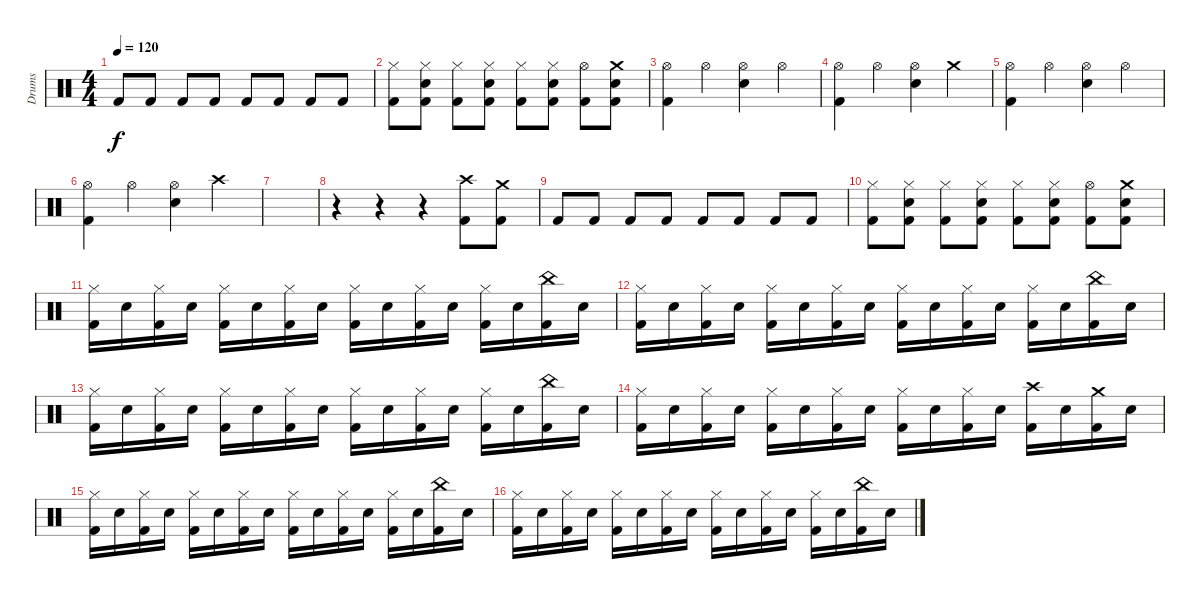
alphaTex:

\track ("Drums" "Drums") {instrument percussion}
\staff {score}
\articulation defaults
\ts (4 4)
\tempo 120
\clef neutral
\ks c "Kick (hit) 2".8{dy f} "Kick (hit) 2".8 "Kick (hit) 2".8 "Kick (hit) 2".8 "Kick (hit) 2".8 "Kick (hit) 2".8 "Kick (hit) 2".8 "Kick (hit) 2".8
|
("Hi-Hat (closed)" "Kick (hit) 2").8 ("Hi-Hat (closed)" "Kick (hit) 2" "Snare (hit) 2").8 ("Hi-Hat (closed)" "Kick (hit) 2").8 ("Hi-Hat (closed)" "Kick (hit) 2" "Snare (hit) 2").8 ("Hi-Hat (closed)" "Kick (hit) 2").8 ("Hi-Hat (closed)" "Kick (hit) 2" "Snare (hit) 2").8 ("Hi-Hat (open)" "Kick (hit) 2").8 ("Crash medium (hit)" "Kick (hit) 2" "Snare (hit) 2").8 |
("Hi-Hat (open)" "Kick (hit) 2").4 "Hi-Hat (open)".4 ("Hi-Hat (open)" "Snare (hit) 2").4 "Hi-Hat (open)".4 |
("Hi-Hat (open)" "Kick (hit) 2").4 "Hi-Hat (open)".4 ("Hi-Hat (open)" "Snare (hit) 2").4 "Crash medium (hit)".4 |
("Hi-Hat (open)" "Kick (hit) 2").4 "Hi-Hat (open)".4 ("Hi-Hat (open)" "Snare (hit) 2").4 "Hi-Hat (open)".4 |
("Hi-Hat (open)" "Kick (hit) 2").4 "Hi-Hat (open)".4 ("Hi-Hat (open)" "Snare (hit) 2").4 "Crash high (hit)".4 |
|
r.4 r.4 r.4 ("Kick (hit) 2" "Crash high (hit)").8 ("Kick (hit) 2" "Crash medium (hit)").8 |
"Kick (hit) 2".8 "Kick (hit) 2".8 "Kick (hit) 2".8 "Kick (hit) 2".8 "Kick (hit) 2".8 "Kick (hit) 2".8 "Kick (hit) 2".8 "Kick (hit) 2".8 |
("Hi-Hat (closed)" "Kick (hit) 2").8 ("Hi-Hat (closed)" "Kick (hit) 2" "Snare (hit) 2").8 ("Hi-Hat (closed)" "Kick (hit) 2").8 ("Hi-Hat (closed)" "Kick (hit) 2" "Snare (hit) 2").8 ("Hi-Hat (closed)" "Kick (hit) 2").8 ("Hi-Hat (closed)" "Kick (hit) 2" "Snare (hit) 2").8 ("Hi-Hat (open)" "Kick (hit) 2").8 ("Crash medium (hit)" "Kick (hit) 2" "Snare (hit) 2").8 |
("Hi-Hat (closed)" "Kick (hit) 2").16 "Snare (hit) 2".16 ("Hi-Hat (closed)" "Kick (hit) 2").16 "Snare (hit) 2".16 ("Hi-Hat (closed)" "Kick (hit) 2").16 "Snare (hit) 2".16 ("Hi-Hat (closed)" "Kick (hit) 2").16 "Snare (hit) 2".16 ("Hi-Hat (closed)" "Kick (hit) 2").16 "Snare (hit) 2".16 ("Hi-Hat (closed)" "Kick (hit) 2").16 "Snare (hit) 2".16 ("Hi-Hat (closed)" "Kick (hit) 2").16 "Snare (hit) 2".16 ("China (hit)" "Kick (hit) 2").16 "Snare (hit) 2".16 |
("Hi-Hat (closed)" "Kick (hit) 2").16 "Snare (hit) 2".16 ("Hi-Hat (closed)" "Kick (hit) 2").16 "Snare (hit) 2".16 ("Hi-Hat (closed)" "Kick (hit) 2").16 "Snare (hit) 2".16 ("Hi-Hat (closed)" "Kick (hit) 2").16 "Snare (hit) 2".16 ("Hi-Hat (closed)" "Kick (hit) 2").16 "Snare (hit) 2".16 ("Hi-Hat (closed)" "Kick (hit) 2").16 "Snare (hit) 2".16 ("Hi-Hat (closed)" "Kick (hit) 2").16 "Snare (hit) 2".16 ("China (hit)" "Kick (hit) 2").16 "Snare (hit) 2".16 |
("Hi-Hat (closed)" "Kick (hit) 2").16 "Snare (hit) 2".16 ("Hi-Hat (closed)" "Kick (hit) 2").16 "Snare (hit) 2".16 ("Hi-Hat (closed)" "Kick (hit) 2").16 "Snare (hit) 2".16 ("Hi-Hat (closed)" "Kick (hit) 2").16 "Snare (hit) 2".16 ("Hi-Hat (closed)" "Kick (hit) 2").16 "Snare (hit) 2".16 ("Hi-Hat (closed)" "Kick (hit) 2").16 "Snare (hit) 2".16 ("Hi-Hat (closed)" "Kick (hit) 2").16 "Snare (hit) 2".16 ("China (hit)" "Kick (hit) 2").16 "Snare (hit) 2".16 |
("Hi-Hat (closed)" "Kick (hit) 2").16 "Snare (hit) 2".16 ("Hi-Hat (closed)" "Kick (hit) 2").16 "Snare (hit) 2".16 ("Hi-Hat (closed)" "Kick (hit) 2").16 "Snare (hit) 2".16 ("Hi-Hat (closed)" "Kick (hit) 2").16 "Snare (hit) 2".16 ("Hi-Hat (closed)" "Kick (hit) 2").16 "Snare (hit) 2".16 ("Hi-Hat (closed)" "Kick (hit) 2").16 "Snare (hit) 2".16 ("Crash high (hit)" "Kick (hit) 2").16 "Snare (hit) 2".16 ("Crash medium (hit)" "Kick (hit) 2").16 "Snare (hit) 2".16 |
("Hi-Hat (closed)" "Kick (hit) 2").16 "Snare (hit) 2".16 ("Hi-Hat (closed)" "Kick (hit) 2").16 "Snare (hit) 2".16 ("Hi-Hat (closed)" "Kick (hit) 2").16 "Snare (hit) 2".16 ("Hi-Hat (closed)" "Kick (hit) 2").16 "Snare (hit) 2".16 ("Hi-Hat (closed)" "Kick (hit) 2").16 "Snare (hit) 2".16 ("Hi-Hat (closed)" "Kick (hit) 2").16 "Snare (hit) 2".16 ("Hi-Hat (closed)" "Kick (hit) 2").16 "Snare (hit) 2".16 ("China (hit)" "Kick (hit) 2").16 "Snare (hit) 2".16 |
("Hi-Hat (closed)" "Kick (hit) 2").16 "Snare (hit) 2".16 ("Hi-Hat (closed)" "Kick (hit) 2").16 "Snare (hit) 2".16 ("Hi-Hat (closed)" "Kick (hit) 2").16 "Snare (hit) 2".16 ("Hi-Hat (closed)" "Kick (hit) 2").16 "Snare (hit) 2".16 ("Hi-Hat (closed)" "Kick (hit) 2").16 "Snare (hit) 2".16 ("Hi-Hat (closed)" "Kick (hit) 2").16 "Snare (hit) 2".16 ("Hi-Hat (closed)" "Kick (hit) 2").16 "Snare (hit) 2".16 ("China (hit)" "Kick (hit) 2").16 "Snare (hit) 2".16
